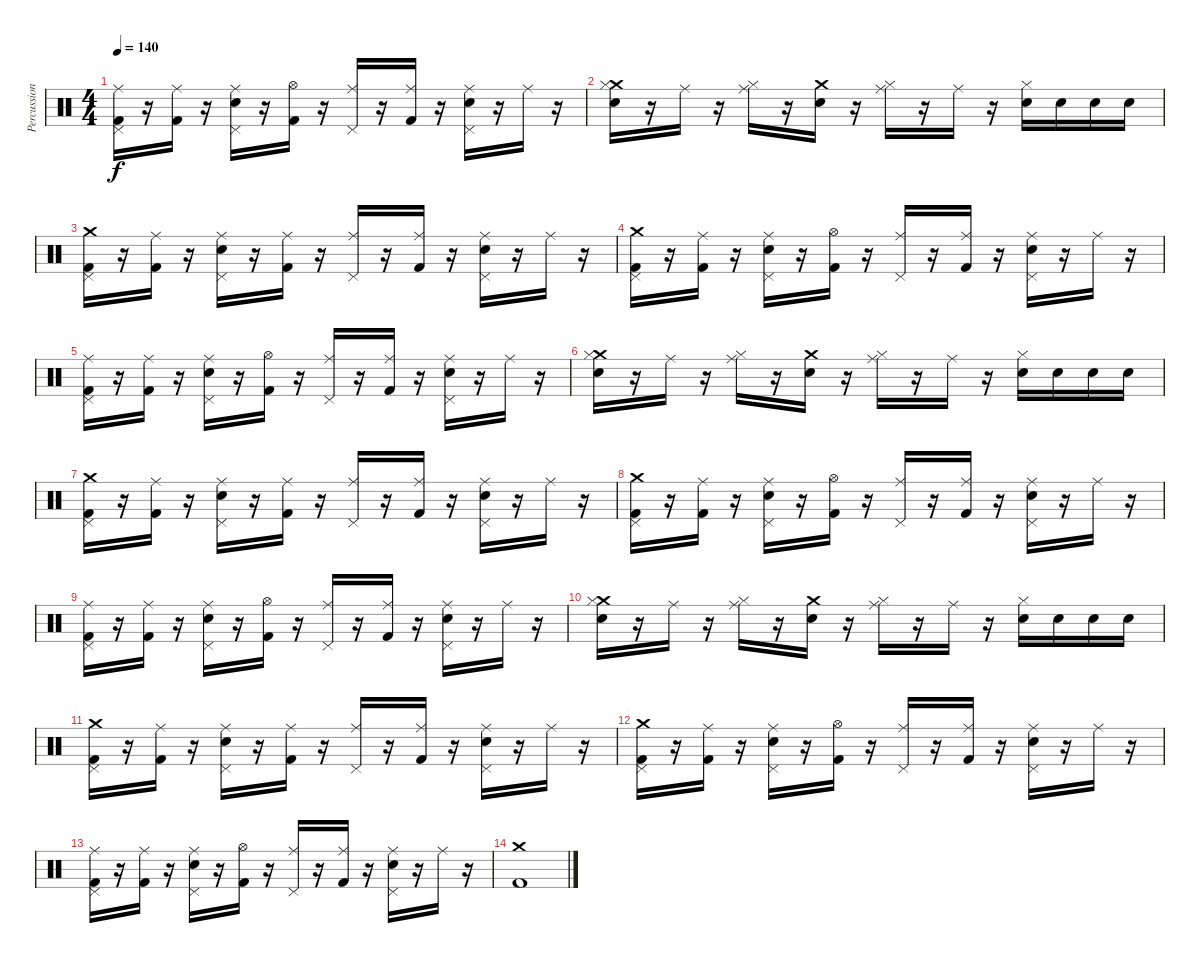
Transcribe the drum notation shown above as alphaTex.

\track ("Percussion" "Percussion") {instrument percussion}
\staff {score}
\articulation defaults
\ts (4 4)
\tempo 140
\clef neutral
\ks c
("Ride (middle)" "Pedal Hi-Hat (hit)" "Kick (hit) 2").16{dy f} r.16 ("Ride (middle)" "Kick (hit) 2").16 r.16 ("Ride (middle)" "Pedal Hi-Hat (hit)" "Snare (hit) 2").16 r.16 ("Hi-Hat (open)" "Kick (hit) 2").16 r.16 ("Ride (middle)" "Pedal Hi-Hat (hit)").16 r.16 ("Ride (middle)" "Kick (hit) 2").16 r.16 ("Ride (middle)" "Pedal Hi-Hat (hit)" "Snare (hit) 2").16 r.16 "Ride (middle)".16 r.16 |
("Crash medium (hit)" "Hi-Hat (closed)" "Snare (hit) 2").16 r.16 "Ride (middle)".16 r.16 ("Ride (middle)" "Hi-Hat (closed)").16 r.16 ("Crash medium (hit)" "Snare (hit) 2").16 r.16 ("Ride (middle)" "Hi-Hat (closed)").16 r.16 "Ride (middle)".16 r.16 ("Hi-Hat (closed)" "Snare (hit) 2").16 "Snare (hit) 2".16 "Snare (hit) 2".16 "Snare (hit) 2".16 |
("Crash medium (hit)" "Pedal Hi-Hat (hit)" "Kick (hit) 2").16 r.16 ("Ride (middle)" "Kick (hit) 2").16 r.16 ("Ride (middle)" "Pedal Hi-Hat (hit)" "Snare (hit) 2").16 r.16 ("Ride (middle)" "Kick (hit) 2").16 r.16 ("Ride (middle)" "Pedal Hi-Hat (hit)").16 r.16 ("Ride (middle)" "Kick (hit) 2").16 r.16 ("Ride (middle)" "Pedal Hi-Hat (hit)" "Snare (hit) 2").16 r.16 "Ride (middle)".16 r.16 |
("Crash medium (hit)" "Pedal Hi-Hat (hit)" "Kick (hit) 2").16 r.16 ("Ride (middle)" "Kick (hit) 2").16 r.16 ("Ride (middle)" "Pedal Hi-Hat (hit)" "Snare (hit) 2").16 r.16 ("Hi-Hat (open)" "Kick (hit) 2").16 r.16 ("Ride (middle)" "Pedal Hi-Hat (hit)").16 r.16 ("Ride (middle)" "Kick (hit) 2").16 r.16 ("Ride (middle)" "Pedal Hi-Hat (hit)" "Snare (hit) 2").16 r.16 "Ride (middle)".16 r.16 |
("Ride (middle)" "Pedal Hi-Hat (hit)" "Kick (hit) 2").16 r.16 ("Ride (middle)" "Kick (hit) 2").16 r.16 ("Ride (middle)" "Pedal Hi-Hat (hit)" "Snare (hit) 2").16 r.16 ("Hi-Hat (open)" "Kick (hit) 2").16 r.16 ("Ride (middle)" "Pedal Hi-Hat (hit)").16 r.16 ("Ride (middle)" "Kick (hit) 2").16 r.16 ("Ride (middle)" "Pedal Hi-Hat (hit)" "Snare (hit) 2").16 r.16 "Ride (middle)".16 r.16 |
("Crash medium (hit)" "Hi-Hat (closed)" "Snare (hit) 2").16 r.16 "Ride (middle)".16 r.16 ("Ride (middle)" "Hi-Hat (closed)").16 r.16 ("Crash medium (hit)" "Snare (hit) 2").16 r.16 ("Ride (middle)" "Hi-Hat (closed)").16 r.16 "Ride (middle)".16 r.16 ("Hi-Hat (closed)" "Snare (hit) 2").16 "Snare (hit) 2".16 "Snare (hit) 2".16 "Snare (hit) 2".16 |
("Crash medium (hit)" "Pedal Hi-Hat (hit)" "Kick (hit) 2").16 r.16 ("Ride (middle)" "Kick (hit) 2").16 r.16 ("Ride (middle)" "Pedal Hi-Hat (hit)" "Snare (hit) 2").16 r.16 ("Ride (middle)" "Kick (hit) 2").16 r.16 ("Ride (middle)" "Pedal Hi-Hat (hit)").16 r.16 ("Ride (middle)" "Kick (hit) 2").16 r.16 ("Ride (middle)" "Pedal Hi-Hat (hit)" "Snare (hit) 2").16 r.16 "Ride (middle)".16 r.16 |
("Crash medium (hit)" "Pedal Hi-Hat (hit)" "Kick (hit) 2").16 r.16 ("Ride (middle)" "Kick (hit) 2").16 r.16 ("Ride (middle)" "Pedal Hi-Hat (hit)" "Snare (hit) 2").16 r.16 ("Hi-Hat (open)" "Kick (hit) 2").16 r.16 ("Ride (middle)" "Pedal Hi-Hat (hit)").16 r.16 ("Ride (middle)" "Kick (hit) 2").16 r.16 ("Ride (middle)" "Pedal Hi-Hat (hit)" "Snare (hit) 2").16 r.16 "Ride (middle)".16 r.16 |
("Ride (middle)" "Pedal Hi-Hat (hit)" "Kick (hit) 2").16 r.16 ("Ride (middle)" "Kick (hit) 2").16 r.16 ("Ride (middle)" "Pedal Hi-Hat (hit)" "Snare (hit) 2").16 r.16 ("Hi-Hat (open)" "Kick (hit) 2").16 r.16 ("Ride (middle)" "Pedal Hi-Hat (hit)").16 r.16 ("Ride (middle)" "Kick (hit) 2").16 r.16 ("Ride (middle)" "Pedal Hi-Hat (hit)" "Snare (hit) 2").16 r.16 "Ride (middle)".16 r.16 |
("Crash medium (hit)" "Hi-Hat (closed)" "Snare (hit) 2").16 r.16 "Ride (middle)".16 r.16 ("Ride (middle)" "Hi-Hat (closed)").16 r.16 ("Crash medium (hit)" "Snare (hit) 2").16 r.16 ("Ride (middle)" "Hi-Hat (closed)").16 r.16 "Ride (middle)".16 r.16 ("Hi-Hat (closed)" "Snare (hit) 2").16 "Snare (hit) 2".16 "Snare (hit) 2".16 "Snare (hit) 2".16 |
("Crash medium (hit)" "Pedal Hi-Hat (hit)" "Kick (hit) 2").16 r.16 ("Ride (middle)" "Kick (hit) 2").16 r.16 ("Ride (middle)" "Pedal Hi-Hat (hit)" "Snare (hit) 2").16 r.16 ("Ride (middle)" "Kick (hit) 2").16 r.16 ("Ride (middle)" "Pedal Hi-Hat (hit)").16 r.16 ("Ride (middle)" "Kick (hit) 2").16 r.16 ("Ride (middle)" "Pedal Hi-Hat (hit)" "Snare (hit) 2").16 r.16 "Ride (middle)".16 r.16 |
("Crash medium (hit)" "Pedal Hi-Hat (hit)" "Kick (hit) 2").16 r.16 ("Ride (middle)" "Kick (hit) 2").16 r.16 ("Ride (middle)" "Pedal Hi-Hat (hit)" "Snare (hit) 2").16 r.16 ("Hi-Hat (open)" "Kick (hit) 2").16 r.16 ("Ride (middle)" "Pedal Hi-Hat (hit)").16 r.16 ("Ride (middle)" "Kick (hit) 2").16 r.16 ("Ride (middle)" "Pedal Hi-Hat (hit)" "Snare (hit) 2").16 r.16 "Ride (middle)".16 r.16 |
("Ride (middle)" "Pedal Hi-Hat (hit)" "Kick (hit) 2").16 r.16 ("Ride (middle)" "Kick (hit) 2").16 r.16 ("Ride (middle)" "Pedal Hi-Hat (hit)" "Snare (hit) 2").16 r.16 ("Hi-Hat (open)" "Kick (hit) 2").16 r.16 ("Ride (middle)" "Pedal Hi-Hat (hit)").16 r.16 ("Ride (middle)" "Kick (hit) 2").16 r.16 ("Ride (middle)" "Pedal Hi-Hat (hit)" "Snare (hit) 2").16 r.16 "Ride (middle)".16 r.16 |
("Crash medium (hit)" "Kick (hit) 2").1
